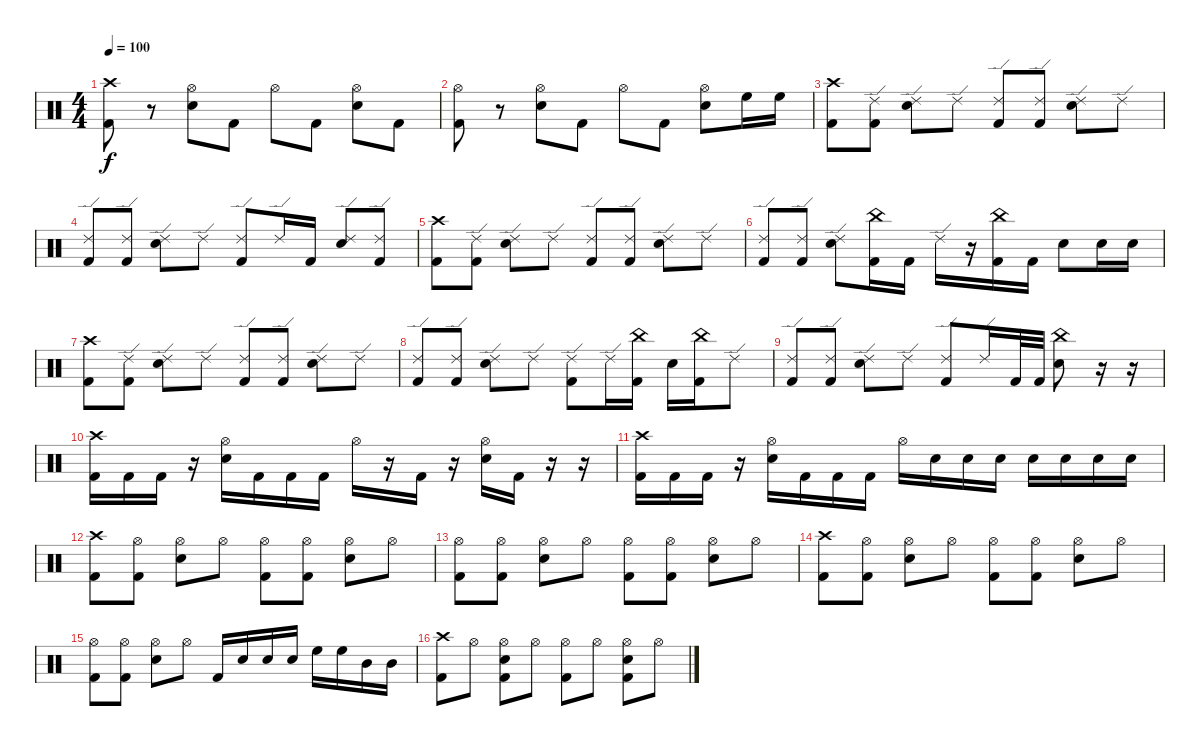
\track "" {instrument percussion}
\staff {score}
\articulation defaults
\ts (4 4)
\tempo 100
\clef neutral
\ks c
("Crash high (hit)" "Kick (hit) 2").8{dy f} r.8 ("Hi-Hat (open)" "Electric Snare (hit)").8 "Kick (hit) 2".8 "Hi-Hat (open)".8 "Kick (hit) 2".8 ("Hi-Hat (open)" "Electric Snare (hit)").8 "Kick (hit) 2".8 |
("Hi-Hat (open)" "Kick (hit) 2").8 r.8 ("Hi-Hat (open)" "Electric Snare (hit)").8 "Kick (hit) 2".8 "Hi-Hat (open)".8 "Kick (hit) 2".8 ("Hi-Hat (open)" "Electric Snare (hit)").8 "High Floor Tom (hit)".16 "High Floor Tom (hit)".16 |
("Crash high (hit)" "Kick (hit) 2").8 ("Ride (edge) 2" "Kick (hit) 2").8 ("Ride (edge) 2" "Electric Snare (hit)").8 "Ride (edge) 2".8 ("Ride (edge) 2" "Kick (hit) 2").8 ("Ride (edge) 2" "Kick (hit) 2").8 ("Ride (edge) 2" "Electric Snare (hit)").8 "Ride (edge) 2".8 |
("Ride (edge) 2" "Kick (hit) 2").8 ("Ride (edge) 2" "Kick (hit) 2").8 ("Ride (edge) 2" "Electric Snare (hit)").8 "Ride (edge) 2".8 ("Ride (edge) 2" "Kick (hit) 2").8 "Ride (edge) 2".16 "Kick (hit) 2".16 ("Ride (edge) 2" "Electric Snare (hit)").8 ("Ride (edge) 2" "Kick (hit) 2").8 |
("Crash high (hit)" "Kick (hit) 2").8 ("Ride (edge) 2" "Kick (hit) 2").8 ("Ride (edge) 2" "Electric Snare (hit)").8 "Ride (edge) 2".8 ("Ride (edge) 2" "Kick (hit) 2").8 ("Ride (edge) 2" "Kick (hit) 2").8 ("Ride (edge) 2" "Electric Snare (hit)").8 "Ride (edge) 2".8 |
("Ride (edge) 2" "Kick (hit) 2").8 ("Ride (edge) 2" "Kick (hit) 2").8 ("Ride (edge) 2" "Electric Snare (hit)").8 ("China (hit)" "Kick (hit) 2").16 "Kick (hit) 2".16 "Ride (edge) 2".16 r.16 ("China (hit)" "Kick (hit) 2").16 "Kick (hit) 2".16 "Electric Snare (hit)".8 "Electric Snare (hit)".16 "Electric Snare (hit)".16 |
("Crash high (hit)" "Kick (hit) 2").8 ("Ride (edge) 2" "Kick (hit) 2").8 ("Ride (edge) 2" "Electric Snare (hit)").8 "Ride (edge) 2".8 ("Ride (edge) 2" "Kick (hit) 2").8 ("Ride (edge) 2" "Kick (hit) 2").8 ("Ride (edge) 2" "Electric Snare (hit)").8 "Ride (edge) 2".8 |
("Ride (edge) 2" "Kick (hit) 2").8 ("Ride (edge) 2" "Kick (hit) 2").8 ("Ride (edge) 2" "Electric Snare (hit)").8 "Ride (edge) 2".8 ("Ride (edge) 2" "Kick (hit) 2").8 "Ride (edge) 2".16 ("China (hit)" "Kick (hit) 2").16 "Electric Snare (hit)".16 ("China (hit)" "Kick (hit) 2").16 "Ride (edge) 2".8 |
("Ride (edge) 2" "Kick (hit) 2").8 ("Ride (edge) 2" "Kick (hit) 2").8 ("Ride (edge) 2" "Electric Snare (hit)").8 "Ride (edge) 2".8 ("Ride (edge) 2" "Kick (hit) 2").8 "Ride (edge) 2".16 "Kick (hit) 2".32 "Kick (hit) 2".32 ("China (hit)" "Electric Snare (hit)").8 r.16 r.16 |
("Crash high (hit)" "Kick (hit) 2").16 "Kick (hit) 2".16 "Kick (hit) 2".16 r.16 ("Hi-Hat (open)" "Electric Snare (hit)").16 "Kick (hit) 2".16 "Kick (hit) 2".16 "Kick (hit) 2".16 "Hi-Hat (open)".16 r.16 "Kick (hit) 2".16 r.16 ("Hi-Hat (open)" "Electric Snare (hit)").16 "Kick (hit) 2".16 r.16 r.16 |
("Crash high (hit)" "Kick (hit) 2").16 "Kick (hit) 2".16 "Kick (hit) 2".16 r.16 ("Hi-Hat (open)" "Electric Snare (hit)").16 "Kick (hit) 2".16 "Kick (hit) 2".16 "Kick (hit) 2".16 "Hi-Hat (open)".16 "Electric Snare (hit)".16 "Electric Snare (hit)".16 "Electric Snare (hit)".16 "Electric Snare (hit)".16 "Electric Snare (hit)".16 "Electric Snare (hit)".16 "Electric Snare (hit)".16 |
("Crash high (hit)" "Kick (hit) 2").8 ("Hi-Hat (open)" "Kick (hit) 2").8 ("Hi-Hat (open)" "Electric Snare (hit)").8 "Hi-Hat (open)".8 ("Hi-Hat (open)" "Kick (hit) 2").8 ("Hi-Hat (open)" "Kick (hit) 2").8 ("Hi-Hat (open)" "Electric Snare (hit)").8 "Hi-Hat (open)".8 |
("Hi-Hat (open)" "Kick (hit) 2").8 ("Hi-Hat (open)" "Kick (hit) 2").8 ("Hi-Hat (open)" "Electric Snare (hit)").8 "Hi-Hat (open)".8 ("Hi-Hat (open)" "Kick (hit) 2").8 ("Hi-Hat (open)" "Kick (hit) 2").8 ("Hi-Hat (open)" "Electric Snare (hit)").8 "Hi-Hat (open)".8 |
("Crash high (hit)" "Kick (hit) 2").8 ("Hi-Hat (open)" "Kick (hit) 2").8 ("Hi-Hat (open)" "Electric Snare (hit)").8 "Hi-Hat (open)".8 ("Hi-Hat (open)" "Kick (hit) 2").8 ("Hi-Hat (open)" "Kick (hit) 2").8 ("Hi-Hat (open)" "Electric Snare (hit)").8 "Hi-Hat (open)".8 |
("Hi-Hat (open)" "Kick (hit) 2").8 ("Hi-Hat (open)" "Kick (hit) 2").8 ("Hi-Hat (open)" "Electric Snare (hit)").8 "Hi-Hat (open)".8 "Kick (hit) 2".16 "Electric Snare (hit)".16 "Electric Snare (hit)".16 "Electric Snare (hit)".16 "High Floor Tom (hit)".16 "High Floor Tom (hit)".16 "Mid Tom (hit)".16 "Mid Tom (hit)".16 |
("Crash high (hit)" "Kick (hit) 2").8 "Hi-Hat (open)".8 ("Hi-Hat (open)" "Electric Snare (hit)" "Kick (hit) 2").8 "Hi-Hat (open)".8 ("Hi-Hat (open)" "Kick (hit) 2").8 "Hi-Hat (open)".8 ("Hi-Hat (open)" "Electric Snare (hit)" "Kick (hit) 2").8 "Hi-Hat (open)".8
